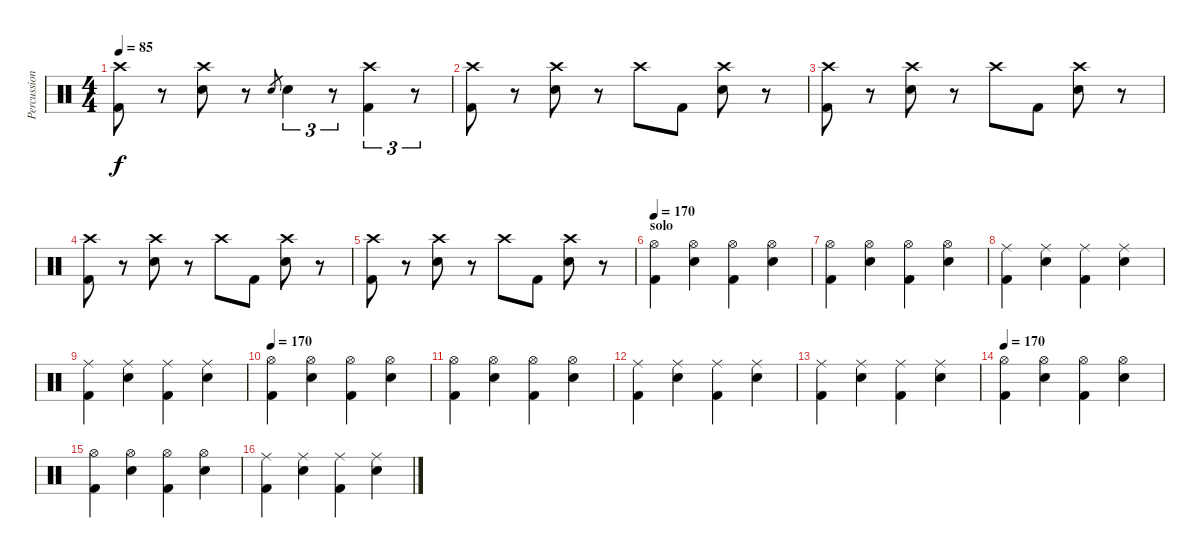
\track ("Percussion" "Percussion") {instrument percussion}
\staff {score}
\articulation defaults
\ts (4 4)
\tempo 85
\clef neutral
\ks c
("Crash high (hit)" "Kick (hit) 2").8{dy f} r.8 ("Crash high (hit)" "Electric Snare (hit)").8 r.8 "Electric Snare (hit)".8{gr} "Electric Snare (hit)".4{tu (3 2)} r.8{tu (3 2)} ("Crash high (hit)" "Kick (hit) 2").4{tu (3 2)} r.8{tu (3 2)} |
("Crash high (hit)" "Kick (hit) 2").8 r.8 ("Crash high (hit)" "Electric Snare (hit)").8 r.8 "Crash high (hit)".8 "Kick (hit) 2".8 ("Crash high (hit)" "Electric Snare (hit)").8 r.8 |
("Crash high (hit)" "Kick (hit) 2").8 r.8 ("Crash high (hit)" "Electric Snare (hit)").8 r.8 "Crash high (hit)".8 "Kick (hit) 2".8 ("Crash high (hit)" "Electric Snare (hit)").8 r.8 |
("Crash high (hit)" "Kick (hit) 2").8 r.8 ("Crash high (hit)" "Electric Snare (hit)").8 r.8 "Crash high (hit)".8 "Kick (hit) 2".8 ("Crash high (hit)" "Electric Snare (hit)").8 r.8 |
("Crash high (hit)" "Kick (hit) 2").8 r.8 ("Crash high (hit)" "Electric Snare (hit)").8 r.8 "Crash high (hit)".8 "Kick (hit) 2".8 ("Crash high (hit)" "Electric Snare (hit)").8 r.8 |
\section ("" "solo")
\tempo 170
("Hi-Hat (open)" "Kick (hit) 2").4 ("Hi-Hat (open)" "Electric Snare (hit)").4 ("Hi-Hat (open)" "Kick (hit) 2").4 ("Hi-Hat (open)" "Electric Snare (hit)").4 |
("Hi-Hat (open)" "Kick (hit) 2").4 ("Hi-Hat (open)" "Electric Snare (hit)").4 ("Hi-Hat (open)" "Kick (hit) 2").4 ("Hi-Hat (open)" "Electric Snare (hit)").4 |
("Ride (middle)" "Kick (hit) 2").4 ("Ride (middle)" "Electric Snare (hit)").4 ("Ride (middle)" "Kick (hit) 2").4 ("Ride (middle)" "Electric Snare (hit)").4 |
("Ride (middle)" "Kick (hit) 2").4 ("Ride (middle)" "Electric Snare (hit)").4 ("Ride (middle)" "Kick (hit) 2").4 ("Ride (middle)" "Electric Snare (hit)").4 |
\tempo 170
("Hi-Hat (open)" "Kick (hit) 2").4 ("Hi-Hat (open)" "Electric Snare (hit)").4 ("Hi-Hat (open)" "Kick (hit) 2").4 ("Hi-Hat (open)" "Electric Snare (hit)").4 |
("Hi-Hat (open)" "Kick (hit) 2").4 ("Hi-Hat (open)" "Electric Snare (hit)").4 ("Hi-Hat (open)" "Kick (hit) 2").4 ("Hi-Hat (open)" "Electric Snare (hit)").4 |
("Ride (middle)" "Kick (hit) 2").4 ("Ride (middle)" "Electric Snare (hit)").4 ("Ride (middle)" "Kick (hit) 2").4 ("Ride (middle)" "Electric Snare (hit)").4 |
("Ride (middle)" "Kick (hit) 2").4 ("Ride (middle)" "Electric Snare (hit)").4 ("Ride (middle)" "Kick (hit) 2").4 ("Ride (middle)" "Electric Snare (hit)").4 |
\tempo 170
("Hi-Hat (open)" "Kick (hit) 2").4 ("Hi-Hat (open)" "Electric Snare (hit)").4 ("Hi-Hat (open)" "Kick (hit) 2").4 ("Hi-Hat (open)" "Electric Snare (hit)").4 |
("Hi-Hat (open)" "Kick (hit) 2").4 ("Hi-Hat (open)" "Electric Snare (hit)").4 ("Hi-Hat (open)" "Kick (hit) 2").4 ("Hi-Hat (open)" "Electric Snare (hit)").4 |
("Ride (middle)" "Kick (hit) 2").4 ("Ride (middle)" "Electric Snare (hit)").4 ("Ride (middle)" "Kick (hit) 2").4 ("Ride (middle)" "Electric Snare (hit)").4
